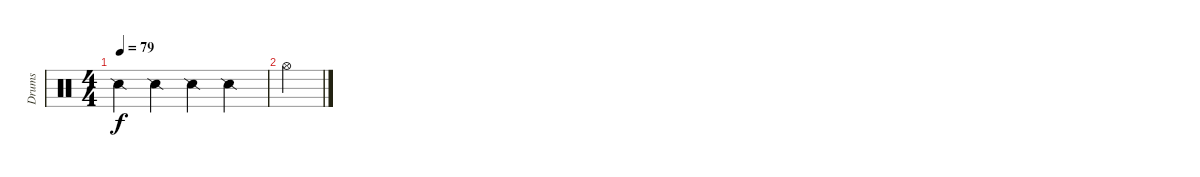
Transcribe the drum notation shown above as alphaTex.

\track ("Drums" "Drums") {instrument percussion}
\staff {score}
\articulation defaults
\ts (4 4)
\tempo 79
\clef neutral
\ks c "Snare (side stick) 2".4{dy f} "Snare (side stick) 2".4 "Snare (side stick) 2".4 "Snare (side stick) 2".4
|
"Hi-Hat (open)".4
